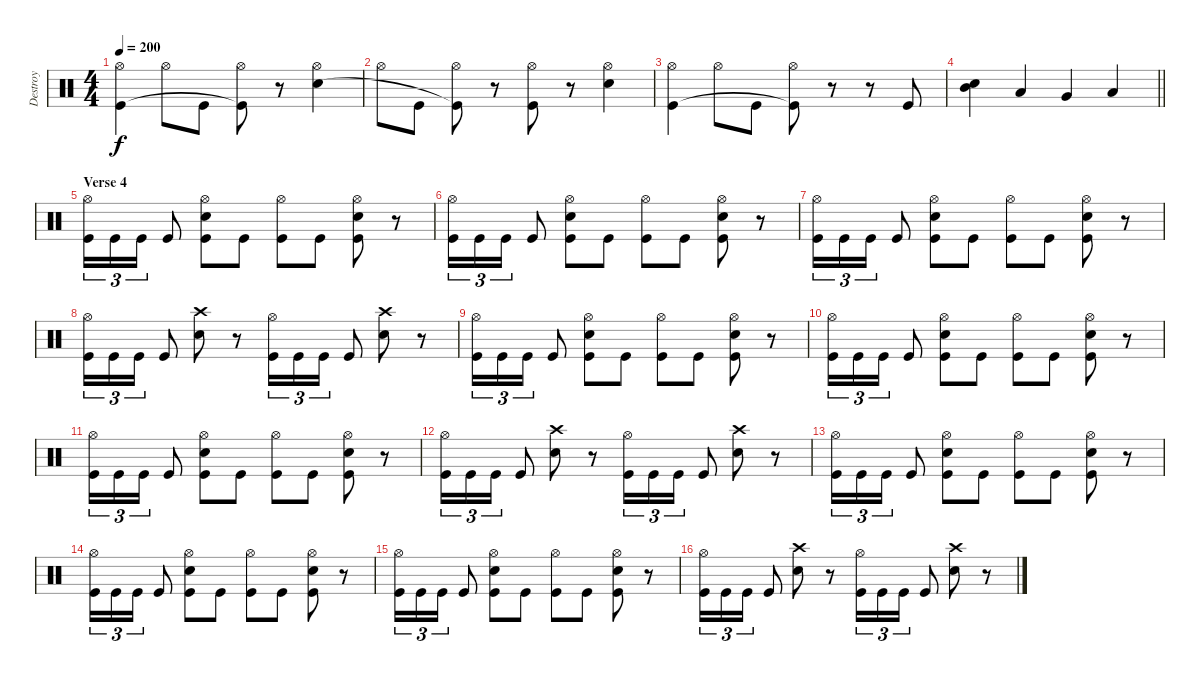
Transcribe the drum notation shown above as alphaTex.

\track ("Destroy" "Destroy") {instrument percussion}
\staff {score}
\articulation defaults
\ts (4 4)
\tempo 200
\clef neutral
\ks c
("Hi-Hat (open)" "Kick (hit)").4{dy f} "Hi-Hat (open)".8 "Kick (hit)".8 ("Hi-Hat (open)" "Kick (hit)"{t}).8 r.8 ("Hi-Hat (open)" "Snare (hit) 2").4 |
"Hi-Hat (open)".8 "Kick (hit)".8 ("Hi-Hat (open)" "Kick (hit)"{t}).8 r.8 ("Hi-Hat (open)" "Kick (hit)").8 r.8 ("Hi-Hat (open)" "Snare (hit) 2").4 |
("Hi-Hat (open)" "Kick (hit)").4 "Hi-Hat (open)".8 "Kick (hit)".8 ("Hi-Hat (open)" "Kick (hit)"{t}).8 r.8 r.8 "Kick (hit)".8 |
\barLineRight lightlight
("Mid Tom (hit)" "Snare (hit) 2").4 "Low Tom (hit)".4 "Very Low Tom (hit)".4 "Low Floor Tom (hit)".4 |
\section ("" "Verse 4")
("Hi-Hat (open)" "Kick (hit)").16{tu (3 2)} "Kick (hit)".16{tu (3 2)} "Kick (hit)".16{tu (3 2)} "Kick (hit)".8 ("Hi-Hat (open)" "Snare (hit) 2" "Kick (hit)").8 "Kick (hit)".8 ("Hi-Hat (open)" "Kick (hit)").8 "Kick (hit)".8 ("Hi-Hat (open)" "Snare (hit) 2" "Kick (hit)").8 r.8 |
("Hi-Hat (open)" "Kick (hit)").16{tu (3 2)} "Kick (hit)".16{tu (3 2)} "Kick (hit)".16{tu (3 2)} "Kick (hit)".8 ("Hi-Hat (open)" "Snare (hit) 2" "Kick (hit)").8 "Kick (hit)".8 ("Hi-Hat (open)" "Kick (hit)").8 "Kick (hit)".8 ("Hi-Hat (open)" "Snare (hit) 2" "Kick (hit)").8 r.8 |
("Hi-Hat (open)" "Kick (hit)").16{tu (3 2)} "Kick (hit)".16{tu (3 2)} "Kick (hit)".16{tu (3 2)} "Kick (hit)".8 ("Hi-Hat (open)" "Snare (hit) 2" "Kick (hit)").8 "Kick (hit)".8 ("Hi-Hat (open)" "Kick (hit)").8 "Kick (hit)".8 ("Hi-Hat (open)" "Snare (hit) 2" "Kick (hit)").8 r.8 |
("Hi-Hat (open)" "Kick (hit)").16{tu (3 2)} "Kick (hit)".16{tu (3 2)} "Kick (hit)".16{tu (3 2)} "Kick (hit)".8 ("Crash high (hit)" "Snare (hit) 2").8 r.8 ("Hi-Hat (open)" "Kick (hit)").16{tu (3 2)} "Kick (hit)".16{tu (3 2)} "Kick (hit)".16{tu (3 2)} "Kick (hit)".8 ("Crash high (hit)" "Snare (hit) 2").8 r.8 |
("Hi-Hat (open)" "Kick (hit)").16{tu (3 2)} "Kick (hit)".16{tu (3 2)} "Kick (hit)".16{tu (3 2)} "Kick (hit)".8 ("Hi-Hat (open)" "Snare (hit) 2" "Kick (hit)").8 "Kick (hit)".8 ("Hi-Hat (open)" "Kick (hit)").8 "Kick (hit)".8 ("Hi-Hat (open)" "Snare (hit) 2" "Kick (hit)").8 r.8 |
("Hi-Hat (open)" "Kick (hit)").16{tu (3 2)} "Kick (hit)".16{tu (3 2)} "Kick (hit)".16{tu (3 2)} "Kick (hit)".8 ("Hi-Hat (open)" "Snare (hit) 2" "Kick (hit)").8 "Kick (hit)".8 ("Hi-Hat (open)" "Kick (hit)").8 "Kick (hit)".8 ("Hi-Hat (open)" "Snare (hit) 2" "Kick (hit)").8 r.8 |
("Hi-Hat (open)" "Kick (hit)").16{tu (3 2)} "Kick (hit)".16{tu (3 2)} "Kick (hit)".16{tu (3 2)} "Kick (hit)".8 ("Hi-Hat (open)" "Snare (hit) 2" "Kick (hit)").8 "Kick (hit)".8 ("Hi-Hat (open)" "Kick (hit)").8 "Kick (hit)".8 ("Hi-Hat (open)" "Snare (hit) 2" "Kick (hit)").8 r.8 |
("Hi-Hat (open)" "Kick (hit)").16{tu (3 2)} "Kick (hit)".16{tu (3 2)} "Kick (hit)".16{tu (3 2)} "Kick (hit)".8 ("Crash high (hit)" "Snare (hit) 2").8 r.8 ("Hi-Hat (open)" "Kick (hit)").16{tu (3 2)} "Kick (hit)".16{tu (3 2)} "Kick (hit)".16{tu (3 2)} "Kick (hit)".8 ("Crash high (hit)" "Snare (hit) 2").8 r.8 |
("Hi-Hat (open)" "Kick (hit)").16{tu (3 2)} "Kick (hit)".16{tu (3 2)} "Kick (hit)".16{tu (3 2)} "Kick (hit)".8 ("Hi-Hat (open)" "Snare (hit) 2" "Kick (hit)").8 "Kick (hit)".8 ("Hi-Hat (open)" "Kick (hit)").8 "Kick (hit)".8 ("Hi-Hat (open)" "Snare (hit) 2" "Kick (hit)").8 r.8 |
("Hi-Hat (open)" "Kick (hit)").16{tu (3 2)} "Kick (hit)".16{tu (3 2)} "Kick (hit)".16{tu (3 2)} "Kick (hit)".8 ("Hi-Hat (open)" "Snare (hit) 2" "Kick (hit)").8 "Kick (hit)".8 ("Hi-Hat (open)" "Kick (hit)").8 "Kick (hit)".8 ("Hi-Hat (open)" "Snare (hit) 2" "Kick (hit)").8 r.8 |
("Hi-Hat (open)" "Kick (hit)").16{tu (3 2)} "Kick (hit)".16{tu (3 2)} "Kick (hit)".16{tu (3 2)} "Kick (hit)".8 ("Hi-Hat (open)" "Snare (hit) 2" "Kick (hit)").8 "Kick (hit)".8 ("Hi-Hat (open)" "Kick (hit)").8 "Kick (hit)".8 ("Hi-Hat (open)" "Snare (hit) 2" "Kick (hit)").8 r.8 |
("Hi-Hat (open)" "Kick (hit)").16{tu (3 2)} "Kick (hit)".16{tu (3 2)} "Kick (hit)".16{tu (3 2)} "Kick (hit)".8 ("Crash high (hit)" "Snare (hit) 2").8 r.8 ("Hi-Hat (open)" "Kick (hit)").16{tu (3 2)} "Kick (hit)".16{tu (3 2)} "Kick (hit)".16{tu (3 2)} "Kick (hit)".8 ("Crash high (hit)" "Snare (hit) 2").8 r.8
